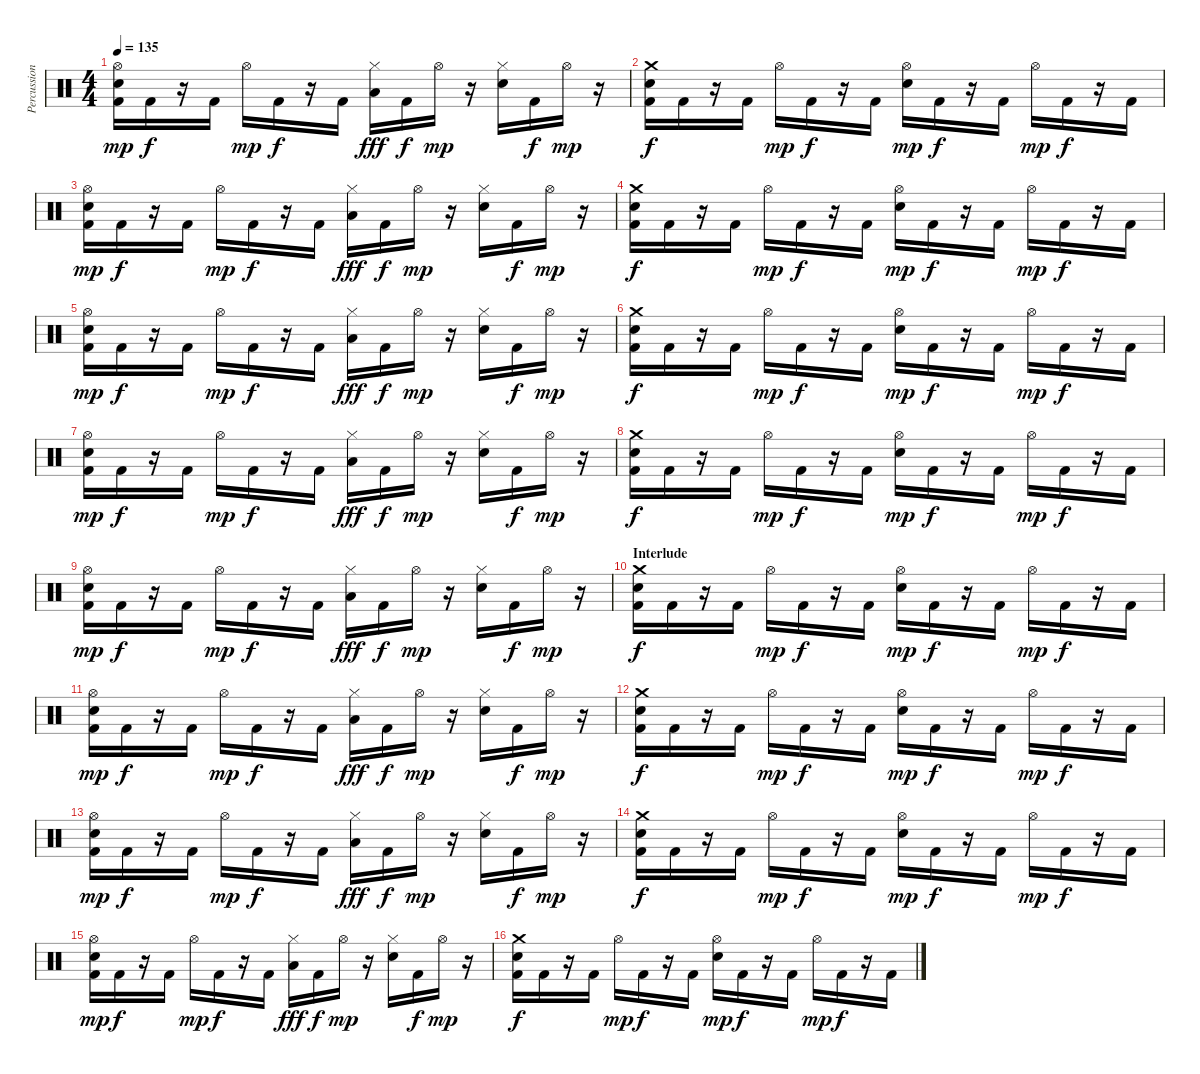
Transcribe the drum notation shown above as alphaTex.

\track ("Percussions" "Percussion") {instrument percussion}
\staff {score}
\articulation defaults
\ts (4 4)
\tempo 135
\clef neutral
\ks c
("Hi-Hat (open)" "Electric Snare (hit)" "Kick (hit) 2").16{dy mp} "Kick (hit) 2".16{dy f} r.16 "Kick (hit) 2".16 "Hi-Hat (open)".16{dy mp} "Kick (hit) 2".16{dy f} r.16 "Kick (hit) 2".16 ("Hi-Hat (closed)" "Low Tom (hit)").16{dy fff} "Kick (hit) 2".16{dy f} "Hi-Hat (open)".16{dy mp} r.16 ("Hi-Hat (closed)" "Electric Snare (hit)").16 "Kick (hit) 2".16{dy f} "Hi-Hat (open)".16{dy mp} r.16 |
("Crash medium (hit)" "Electric Snare (hit)" "Kick (hit) 2").16{dy f} "Kick (hit) 2".16 r.16 "Kick (hit) 2".16 "Hi-Hat (open)".16{dy mp} "Kick (hit) 2".16{dy f} r.16 "Kick (hit) 2".16 ("Hi-Hat (open)" "Electric Snare (hit)").16{dy mp} "Kick (hit) 2".16{dy f} r.16 "Kick (hit) 2".16 "Hi-Hat (open)".16{dy mp} "Kick (hit) 2".16{dy f} r.16 "Kick (hit) 2".16 |
("Hi-Hat (open)" "Electric Snare (hit)" "Kick (hit) 2").16{dy mp} "Kick (hit) 2".16{dy f} r.16 "Kick (hit) 2".16 "Hi-Hat (open)".16{dy mp} "Kick (hit) 2".16{dy f} r.16 "Kick (hit) 2".16 ("Hi-Hat (closed)" "Low Tom (hit)").16{dy fff} "Kick (hit) 2".16{dy f} "Hi-Hat (open)".16{dy mp} r.16 ("Hi-Hat (closed)" "Electric Snare (hit)").16 "Kick (hit) 2".16{dy f} "Hi-Hat (open)".16{dy mp} r.16 |
("Crash medium (hit)" "Electric Snare (hit)" "Kick (hit) 2").16{dy f} "Kick (hit) 2".16 r.16 "Kick (hit) 2".16 "Hi-Hat (open)".16{dy mp} "Kick (hit) 2".16{dy f} r.16 "Kick (hit) 2".16 ("Hi-Hat (open)" "Electric Snare (hit)").16{dy mp} "Kick (hit) 2".16{dy f} r.16 "Kick (hit) 2".16 "Hi-Hat (open)".16{dy mp} "Kick (hit) 2".16{dy f} r.16 "Kick (hit) 2".16 |
("Hi-Hat (open)" "Electric Snare (hit)" "Kick (hit) 2").16{dy mp} "Kick (hit) 2".16{dy f} r.16 "Kick (hit) 2".16 "Hi-Hat (open)".16{dy mp} "Kick (hit) 2".16{dy f} r.16 "Kick (hit) 2".16 ("Hi-Hat (closed)" "Low Tom (hit)").16{dy fff} "Kick (hit) 2".16{dy f} "Hi-Hat (open)".16{dy mp} r.16 ("Hi-Hat (closed)" "Electric Snare (hit)").16 "Kick (hit) 2".16{dy f} "Hi-Hat (open)".16{dy mp} r.16 |
("Crash medium (hit)" "Electric Snare (hit)" "Kick (hit) 2").16{dy f} "Kick (hit) 2".16 r.16 "Kick (hit) 2".16 "Hi-Hat (open)".16{dy mp} "Kick (hit) 2".16{dy f} r.16 "Kick (hit) 2".16 ("Hi-Hat (open)" "Electric Snare (hit)").16{dy mp} "Kick (hit) 2".16{dy f} r.16 "Kick (hit) 2".16 "Hi-Hat (open)".16{dy mp} "Kick (hit) 2".16{dy f} r.16 "Kick (hit) 2".16 |
("Hi-Hat (open)" "Electric Snare (hit)" "Kick (hit) 2").16{dy mp} "Kick (hit) 2".16{dy f} r.16 "Kick (hit) 2".16 "Hi-Hat (open)".16{dy mp} "Kick (hit) 2".16{dy f} r.16 "Kick (hit) 2".16 ("Hi-Hat (closed)" "Low Tom (hit)").16{dy fff} "Kick (hit) 2".16{dy f} "Hi-Hat (open)".16{dy mp} r.16 ("Hi-Hat (closed)" "Electric Snare (hit)").16 "Kick (hit) 2".16{dy f} "Hi-Hat (open)".16{dy mp} r.16 |
("Crash medium (hit)" "Electric Snare (hit)" "Kick (hit) 2").16{dy f} "Kick (hit) 2".16 r.16 "Kick (hit) 2".16 "Hi-Hat (open)".16{dy mp} "Kick (hit) 2".16{dy f} r.16 "Kick (hit) 2".16 ("Hi-Hat (open)" "Electric Snare (hit)").16{dy mp} "Kick (hit) 2".16{dy f} r.16 "Kick (hit) 2".16 "Hi-Hat (open)".16{dy mp} "Kick (hit) 2".16{dy f} r.16 "Kick (hit) 2".16 |
("Hi-Hat (open)" "Electric Snare (hit)" "Kick (hit) 2").16{dy mp} "Kick (hit) 2".16{dy f} r.16 "Kick (hit) 2".16 "Hi-Hat (open)".16{dy mp} "Kick (hit) 2".16{dy f} r.16 "Kick (hit) 2".16 ("Hi-Hat (closed)" "Low Tom (hit)").16{dy fff} "Kick (hit) 2".16{dy f} "Hi-Hat (open)".16{dy mp} r.16 ("Hi-Hat (closed)" "Electric Snare (hit)").16 "Kick (hit) 2".16{dy f} "Hi-Hat (open)".16{dy mp} r.16 |
\section ("" "Interlude")
("Crash medium (hit)" "Electric Snare (hit)" "Kick (hit) 2").16{dy f} "Kick (hit) 2".16 r.16 "Kick (hit) 2".16 "Hi-Hat (open)".16{dy mp} "Kick (hit) 2".16{dy f} r.16 "Kick (hit) 2".16 ("Hi-Hat (open)" "Electric Snare (hit)").16{dy mp} "Kick (hit) 2".16{dy f} r.16 "Kick (hit) 2".16 "Hi-Hat (open)".16{dy mp} "Kick (hit) 2".16{dy f} r.16 "Kick (hit) 2".16 |
("Hi-Hat (open)" "Electric Snare (hit)" "Kick (hit) 2").16{dy mp} "Kick (hit) 2".16{dy f} r.16 "Kick (hit) 2".16 "Hi-Hat (open)".16{dy mp} "Kick (hit) 2".16{dy f} r.16 "Kick (hit) 2".16 ("Hi-Hat (closed)" "Low Tom (hit)").16{dy fff} "Kick (hit) 2".16{dy f} "Hi-Hat (open)".16{dy mp} r.16 ("Hi-Hat (closed)" "Electric Snare (hit)").16 "Kick (hit) 2".16{dy f} "Hi-Hat (open)".16{dy mp} r.16 |
("Crash medium (hit)" "Electric Snare (hit)" "Kick (hit) 2").16{dy f} "Kick (hit) 2".16 r.16 "Kick (hit) 2".16 "Hi-Hat (open)".16{dy mp} "Kick (hit) 2".16{dy f} r.16 "Kick (hit) 2".16 ("Hi-Hat (open)" "Electric Snare (hit)").16{dy mp} "Kick (hit) 2".16{dy f} r.16 "Kick (hit) 2".16 "Hi-Hat (open)".16{dy mp} "Kick (hit) 2".16{dy f} r.16 "Kick (hit) 2".16 |
("Hi-Hat (open)" "Electric Snare (hit)" "Kick (hit) 2").16{dy mp} "Kick (hit) 2".16{dy f} r.16 "Kick (hit) 2".16 "Hi-Hat (open)".16{dy mp} "Kick (hit) 2".16{dy f} r.16 "Kick (hit) 2".16 ("Hi-Hat (closed)" "Low Tom (hit)").16{dy fff} "Kick (hit) 2".16{dy f} "Hi-Hat (open)".16{dy mp} r.16 ("Hi-Hat (closed)" "Electric Snare (hit)").16 "Kick (hit) 2".16{dy f} "Hi-Hat (open)".16{dy mp} r.16 |
("Crash medium (hit)" "Electric Snare (hit)" "Kick (hit) 2").16{dy f} "Kick (hit) 2".16 r.16 "Kick (hit) 2".16 "Hi-Hat (open)".16{dy mp} "Kick (hit) 2".16{dy f} r.16 "Kick (hit) 2".16 ("Hi-Hat (open)" "Electric Snare (hit)").16{dy mp} "Kick (hit) 2".16{dy f} r.16 "Kick (hit) 2".16 "Hi-Hat (open)".16{dy mp} "Kick (hit) 2".16{dy f} r.16 "Kick (hit) 2".16 |
("Hi-Hat (open)" "Electric Snare (hit)" "Kick (hit) 2").16{dy mp} "Kick (hit) 2".16{dy f} r.16 "Kick (hit) 2".16 "Hi-Hat (open)".16{dy mp} "Kick (hit) 2".16{dy f} r.16 "Kick (hit) 2".16 ("Hi-Hat (closed)" "Low Tom (hit)").16{dy fff} "Kick (hit) 2".16{dy f} "Hi-Hat (open)".16{dy mp} r.16 ("Hi-Hat (closed)" "Electric Snare (hit)").16 "Kick (hit) 2".16{dy f} "Hi-Hat (open)".16{dy mp} r.16 |
("Crash medium (hit)" "Electric Snare (hit)" "Kick (hit) 2").16{dy f} "Kick (hit) 2".16 r.16 "Kick (hit) 2".16 "Hi-Hat (open)".16{dy mp} "Kick (hit) 2".16{dy f} r.16 "Kick (hit) 2".16 ("Hi-Hat (open)" "Electric Snare (hit)").16{dy mp} "Kick (hit) 2".16{dy f} r.16 "Kick (hit) 2".16 "Hi-Hat (open)".16{dy mp} "Kick (hit) 2".16{dy f} r.16 "Kick (hit) 2".16
